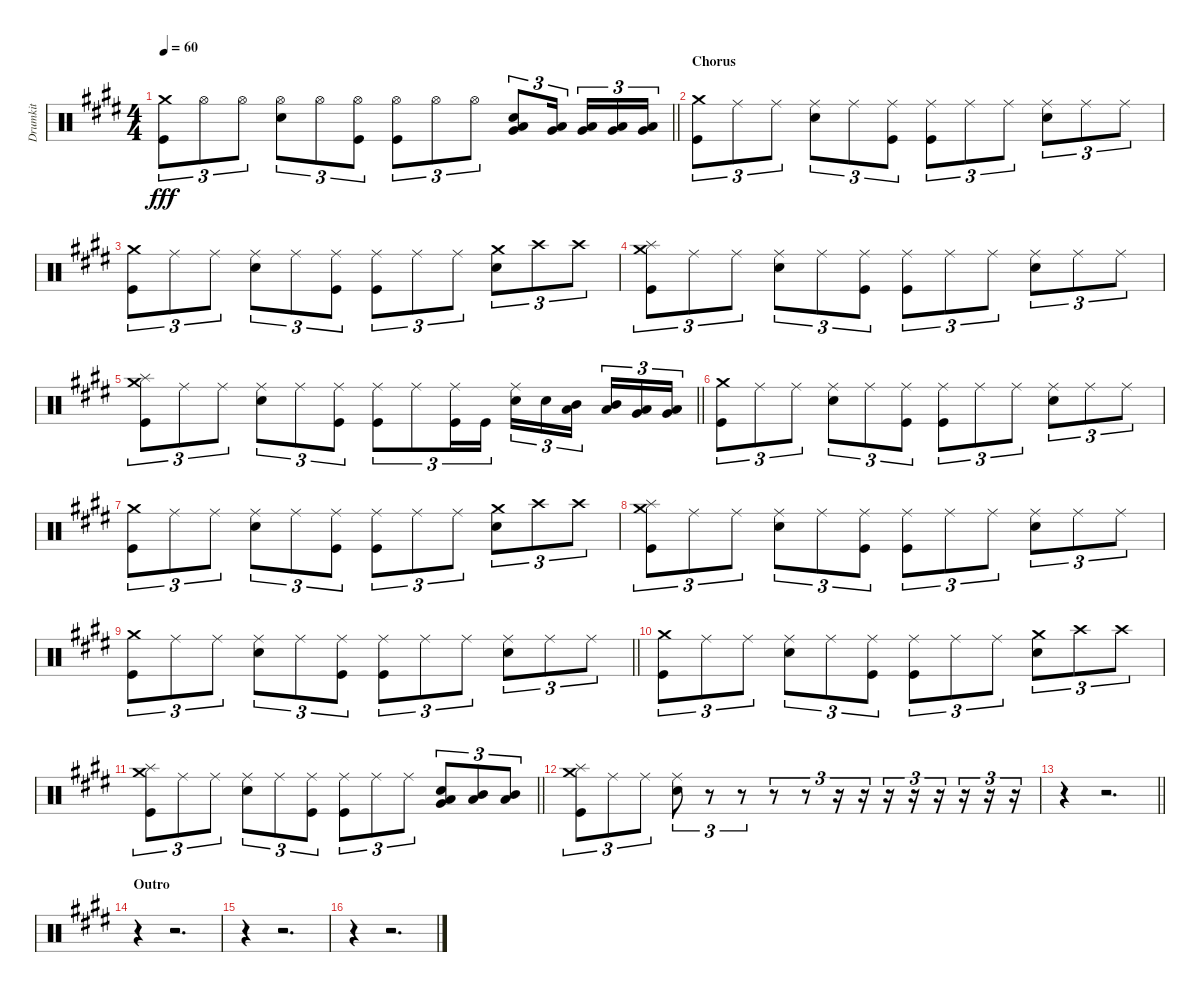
\track ("Drumkit" "Drumkit") {instrument percussion}
\staff {score}
\articulation defaults
\ts (4 4)
\tempo 60
\clef neutral
\barLineRight lightlight
\ks e
("Crash medium (hit)" "Kick (hit)").8{tu (3 2) dy fff} "Hi-Hat (open)".8{tu (3 2)} "Hi-Hat (open)".8{tu (3 2)} ("Hi-Hat (open)" "Snare (hit) 2").8{tu (3 2)} "Hi-Hat (open)".8{tu (3 2)} ("Hi-Hat (open)" "Kick (hit)").8{tu (3 2)} ("Hi-Hat (open)" "Kick (hit)").8{tu (3 2)} "Hi-Hat (open)".8{tu (3 2)} "Hi-Hat (open)".8{tu (3 2)} ("Low Floor Tom (hit)" "Very Low Tom (hit)" "Snare (hit) 2").8{tu (3 2)} ("Low Floor Tom (hit)" "Very Low Tom (hit)").16{tu (3 2)} ("Low Floor Tom (hit)" "Very Low Tom (hit)").16{tu (3 2)} ("Low Floor Tom (hit)" "Very Low Tom (hit)").16{tu (3 2)} ("Low Floor Tom (hit)" "Very Low Tom (hit)").16{tu (3 2)} |
\section ("" "Chorus")
("Crash medium (hit)" "Kick (hit)").8{tu (3 2)} "Ride (middle)".8{tu (3 2)} "Ride (middle)".8{tu (3 2)} ("Ride (middle)" "Snare (hit) 2").8{tu (3 2)} "Ride (middle)".8{tu (3 2)} ("Ride (middle)" "Kick (hit)").8{tu (3 2)} ("Ride (middle)" "Kick (hit)").8{tu (3 2)} "Ride (middle)".8{tu (3 2)} "Ride (middle)".8{tu (3 2)} ("Ride (middle)" "Snare (hit) 2").8{tu (3 2)} "Ride (middle)".8{tu (3 2)} "Ride (middle)".8{tu (3 2)} |
("Crash medium (hit)" "Kick (hit)").8{tu (3 2)} "Ride (middle)".8{tu (3 2)} "Ride (middle)".8{tu (3 2)} ("Ride (middle)" "Snare (hit) 2").8{tu (3 2)} "Ride (middle)".8{tu (3 2)} ("Ride (middle)" "Kick (hit)").8{tu (3 2)} ("Ride (middle)" "Kick (hit)").8{tu (3 2)} "Ride (middle)".8{tu (3 2)} "Ride (middle)".8{tu (3 2)} ("Crash medium (hit)" "Snare (hit) 2").8{tu (3 2)} "Crash high (hit)".8{tu (3 2)} "Crash high (hit)".8{tu (3 2)} |
("Crash medium (hit)" "Splash (hit)" "Kick (hit)").8{tu (3 2)} "Ride (middle)".8{tu (3 2)} "Ride (middle)".8{tu (3 2)} ("Ride (middle)" "Snare (hit) 2").8{tu (3 2)} "Ride (middle)".8{tu (3 2)} ("Ride (middle)" "Kick (hit)").8{tu (3 2)} ("Ride (middle)" "Kick (hit)").8{tu (3 2)} "Ride (middle)".8{tu (3 2)} "Ride (middle)".8{tu (3 2)} ("Ride (middle)" "Snare (hit) 2").8{tu (3 2)} "Ride (middle)".8{tu (3 2)} "Ride (middle)".8{tu (3 2)} |
\barLineRight lightlight
("Crash medium (hit)" "Splash (hit)" "Kick (hit)").8{tu (3 2)} "Ride (middle)".8{tu (3 2)} "Ride (middle)".8{tu (3 2)} ("Ride (middle)" "Snare (hit) 2").8{tu (3 2)} "Ride (middle)".8{tu (3 2)} ("Ride (middle)" "Kick (hit)").8{tu (3 2)} ("Ride (middle)" "Kick (hit)").8{tu (3 2)} "Ride (middle)".8{tu (3 2)} ("Ride (middle)" "Kick (hit)").16{tu (3 2)} "Kick (hit)".16{tu (3 2)} ("Ride (middle)" "Snare (hit) 2").16{tu (3 2)} "Snare (hit) 2".16{tu (3 2)} ("Mid Tom (hit)" "Low Tom (hit)").16{tu (3 2)} ("Mid Tom (hit)" "Low Tom (hit)").16{tu (3 2)} ("Very Low Tom (hit)" "Low Floor Tom (hit)").16{tu (3 2)} ("Very Low Tom (hit)" "Low Floor Tom (hit)").16{tu (3 2)} |
("Crash medium (hit)" "Kick (hit)").8{tu (3 2)} "Ride (middle)".8{tu (3 2)} "Ride (middle)".8{tu (3 2)} ("Ride (middle)" "Snare (hit) 2").8{tu (3 2)} "Ride (middle)".8{tu (3 2)} ("Ride (middle)" "Kick (hit)").8{tu (3 2)} ("Ride (middle)" "Kick (hit)").8{tu (3 2)} "Ride (middle)".8{tu (3 2)} "Ride (middle)".8{tu (3 2)} ("Ride (middle)" "Snare (hit) 2").8{tu (3 2)} "Ride (middle)".8{tu (3 2)} "Ride (middle)".8{tu (3 2)} |
("Crash medium (hit)" "Kick (hit)").8{tu (3 2)} "Ride (middle)".8{tu (3 2)} "Ride (middle)".8{tu (3 2)} ("Ride (middle)" "Snare (hit) 2").8{tu (3 2)} "Ride (middle)".8{tu (3 2)} ("Ride (middle)" "Kick (hit)").8{tu (3 2)} ("Ride (middle)" "Kick (hit)").8{tu (3 2)} "Ride (middle)".8{tu (3 2)} "Ride (middle)".8{tu (3 2)} ("Crash medium (hit)" "Snare (hit) 2").8{tu (3 2)} "Crash high (hit)".8{tu (3 2)} "Crash high (hit)".8{tu (3 2)} |
("Crash medium (hit)" "Splash (hit)" "Kick (hit)").8{tu (3 2)} "Ride (middle)".8{tu (3 2)} "Ride (middle)".8{tu (3 2)} ("Ride (middle)" "Snare (hit) 2").8{tu (3 2)} "Ride (middle)".8{tu (3 2)} ("Ride (middle)" "Kick (hit)").8{tu (3 2)} ("Ride (middle)" "Kick (hit)").8{tu (3 2)} "Ride (middle)".8{tu (3 2)} "Ride (middle)".8{tu (3 2)} ("Ride (middle)" "Snare (hit) 2").8{tu (3 2)} "Ride (middle)".8{tu (3 2)} "Ride (middle)".8{tu (3 2)} |
\barLineRight lightlight
("Crash medium (hit)" "Kick (hit)").8{tu (3 2)} "Ride (middle)".8{tu (3 2)} "Ride (middle)".8{tu (3 2)} ("Ride (middle)" "Snare (hit) 2").8{tu (3 2)} "Ride (middle)".8{tu (3 2)} ("Ride (middle)" "Kick (hit)").8{tu (3 2)} ("Ride (middle)" "Kick (hit)").8{tu (3 2)} "Ride (middle)".8{tu (3 2)} "Ride (middle)".8{tu (3 2)} ("Ride (middle)" "Snare (hit) 2").8{tu (3 2)} "Ride (middle)".8{tu (3 2)} "Ride (middle)".8{tu (3 2)} |
("Crash medium (hit)" "Kick (hit)").8{tu (3 2)} "Ride (middle)".8{tu (3 2)} "Ride (middle)".8{tu (3 2)} ("Ride (middle)" "Snare (hit) 2").8{tu (3 2)} "Ride (middle)".8{tu (3 2)} ("Ride (middle)" "Kick (hit)").8{tu (3 2)} ("Ride (middle)" "Kick (hit)").8{tu (3 2)} "Ride (middle)".8{tu (3 2)} "Ride (middle)".8{tu (3 2)} ("Crash medium (hit)" "Snare (hit) 2").8{tu (3 2)} "Crash high (hit)".8{tu (3 2)} "Crash high (hit)".8{tu (3 2)} |
\barLineRight lightlight
("Crash medium (hit)" "Splash (hit)" "Kick (hit)").8{tu (3 2)} "Ride (middle)".8{tu (3 2)} "Ride (middle)".8{tu (3 2)} ("Ride (middle)" "Snare (hit) 2").8{tu (3 2)} "Ride (middle)".8{tu (3 2)} ("Ride (middle)" "Kick (hit)").8{tu (3 2)} ("Ride (middle)" "Kick (hit)").8{tu (3 2)} "Ride (middle)".8{tu (3 2)} "Ride (middle)".8{tu (3 2)} ("Low Floor Tom (hit)" "Very Low Tom (hit)" "Snare (hit) 2").8{tu (3 2)} ("Low Tom (hit)" "Mid Tom (hit)").8{tu (3 2)} ("Low Tom (hit)" "Mid Tom (hit)").8{tu (3 2)} |
("Crash medium (hit)" "Splash (hit)" "Kick (hit)").8{tu (3 2)} "Ride (middle)".8{tu (3 2)} "Ride (middle)".8{tu (3 2)} ("Ride (middle)" "Snare (hit) 2").8{tu (3 2)} r.8{tu (3 2)} r.8{tu (3 2)} r.8{tu (3 2)} r.8{tu (3 2)} r.16{tu (3 2)} r.16{tu (3 2)} r.16{tu (3 2)} r.16{tu (3 2)} r.16{tu (3 2)} r.16{tu (3 2)} r.16{tu (3 2)} r.16{tu (3 2)} |
\barLineRight lightlight
r.4 r.2{d} |
\section ("" "Outro")
r.4 r.2{d} |
r.4 r.2{d} |
r.4 r.2{d}
